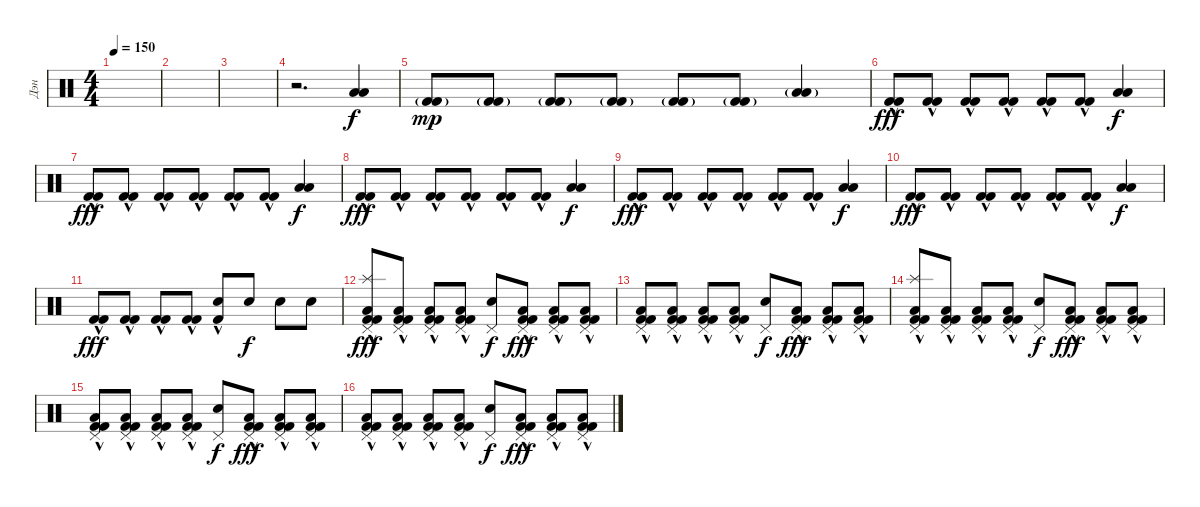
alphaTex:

\track ("Дэн" "Дэн") {instrument percussion}
\staff {score}
\articulation defaults
\ts (4 4)
\tempo 150
\clef neutral
\ks c
|
|
|
r.2{d} ("Low Floor Tom (hit)" "Low Tom (hit)").4{dy f} |
("Kick (hit) 2"{g} "Kick (hit) 2"{g}).8{dy mp} ("Kick (hit) 2"{g} "Kick (hit) 2"{g}).8 ("Kick (hit) 2"{g} "Kick (hit) 2"{g}).8 ("Kick (hit) 2"{g} "Kick (hit) 2"{g}).8 ("Kick (hit) 2"{g} "Kick (hit) 2"{g}).8 ("Kick (hit) 2"{g} "Kick (hit) 2"{g}).8 ("Low Floor Tom (hit)"{g} "Low Tom (hit)"{g}).4 |
("Kick (hit) 2"{hac} "Kick (hit) 2"{hac}).8{dy fff} ("Kick (hit) 2"{hac} "Kick (hit) 2"{hac}).8 ("Kick (hit) 2"{hac} "Kick (hit) 2"{hac}).8 ("Kick (hit) 2"{hac} "Kick (hit) 2"{hac}).8 ("Kick (hit) 2"{hac} "Kick (hit) 2"{hac}).8 ("Kick (hit) 2"{hac} "Kick (hit) 2"{hac}).8 ("Low Floor Tom (hit)" "Low Tom (hit)").4{dy f} |
("Kick (hit) 2"{hac} "Kick (hit) 2"{hac}).8{dy fff} ("Kick (hit) 2"{hac} "Kick (hit) 2"{hac}).8 ("Kick (hit) 2"{hac} "Kick (hit) 2"{hac}).8 ("Kick (hit) 2"{hac} "Kick (hit) 2"{hac}).8 ("Kick (hit) 2"{hac} "Kick (hit) 2"{hac}).8 ("Kick (hit) 2"{hac} "Kick (hit) 2"{hac}).8 ("Low Floor Tom (hit)" "Low Tom (hit)").4{dy f} |
("Kick (hit) 2"{hac} "Kick (hit) 2"{hac}).8{dy fff} ("Kick (hit) 2"{hac} "Kick (hit) 2"{hac}).8 ("Kick (hit) 2"{hac} "Kick (hit) 2"{hac}).8 ("Kick (hit) 2"{hac} "Kick (hit) 2"{hac}).8 ("Kick (hit) 2"{hac} "Kick (hit) 2"{hac}).8 ("Kick (hit) 2"{hac} "Kick (hit) 2"{hac}).8 ("Low Floor Tom (hit)" "Low Tom (hit)").4{dy f} |
("Kick (hit) 2"{hac} "Kick (hit) 2"{hac}).8{dy fff} ("Kick (hit) 2"{hac} "Kick (hit) 2"{hac}).8 ("Kick (hit) 2"{hac} "Kick (hit) 2"{hac}).8 ("Kick (hit) 2"{hac} "Kick (hit) 2"{hac}).8 ("Kick (hit) 2"{hac} "Kick (hit) 2"{hac}).8 ("Kick (hit) 2"{hac} "Kick (hit) 2"{hac}).8 ("Low Floor Tom (hit)" "Low Tom (hit)").4{dy f} |
("Kick (hit) 2"{hac} "Kick (hit) 2"{hac}).8{dy fff} ("Kick (hit) 2"{hac} "Kick (hit) 2"{hac}).8 ("Kick (hit) 2"{hac} "Kick (hit) 2"{hac}).8 ("Kick (hit) 2"{hac} "Kick (hit) 2"{hac}).8 ("Kick (hit) 2"{hac} "Kick (hit) 2"{hac}).8 ("Kick (hit) 2"{hac} "Kick (hit) 2"{hac}).8 ("Low Floor Tom (hit)" "Low Tom (hit)").4{dy f} |
("Kick (hit) 2"{hac} "Kick (hit) 2"{hac}).8{dy fff} ("Kick (hit) 2"{hac} "Kick (hit) 2"{hac}).8 ("Kick (hit) 2"{hac} "Kick (hit) 2"{hac}).8 ("Kick (hit) 2"{hac} "Kick (hit) 2"{hac}).8 ("Electric Snare (hit)"{hac} "Kick (hit) 2"{hac}).8 "Electric Snare (hit)".8{dy f} "Electric Snare (hit)".8 "Electric Snare (hit)".8 |
("Splash (hit)" "Low Floor Tom (hit)" "Kick (hit) 2"{hac} "Kick (hit) 2"{hac} "Pedal Hi-Hat (hit)").8{dy fff} ("Low Floor Tom (hit)" "Kick (hit) 2"{hac} "Kick (hit) 2"{hac} "Pedal Hi-Hat (hit)").8 ("Low Floor Tom (hit)" "Kick (hit) 2"{hac} "Kick (hit) 2"{hac} "Pedal Hi-Hat (hit)").8 ("Low Floor Tom (hit)" "Kick (hit) 2"{hac} "Kick (hit) 2"{hac} "Pedal Hi-Hat (hit)").8 ("Electric Snare (hit)" "Pedal Hi-Hat (hit)").8{dy f} ("Low Floor Tom (hit)" "Kick (hit) 2"{hac} "Kick (hit) 2"{hac} "Pedal Hi-Hat (hit)").8{dy fff} ("Low Floor Tom (hit)" "Kick (hit) 2"{hac} "Kick (hit) 2"{hac} "Pedal Hi-Hat (hit)").8 ("Low Floor Tom (hit)" "Kick (hit) 2"{hac} "Kick (hit) 2"{hac} "Pedal Hi-Hat (hit)").8 |
("Low Floor Tom (hit)" "Kick (hit) 2"{hac} "Kick (hit) 2"{hac} "Pedal Hi-Hat (hit)").8 ("Low Floor Tom (hit)" "Kick (hit) 2"{hac} "Kick (hit) 2"{hac} "Pedal Hi-Hat (hit)").8 ("Low Floor Tom (hit)" "Kick (hit) 2"{hac} "Kick (hit) 2"{hac} "Pedal Hi-Hat (hit)").8 ("Low Floor Tom (hit)" "Kick (hit) 2"{hac} "Kick (hit) 2"{hac} "Pedal Hi-Hat (hit)").8 ("Electric Snare (hit)" "Pedal Hi-Hat (hit)").8{dy f} ("Low Floor Tom (hit)" "Kick (hit) 2"{hac} "Kick (hit) 2"{hac} "Pedal Hi-Hat (hit)").8{dy fff} ("Low Floor Tom (hit)" "Kick (hit) 2"{hac} "Kick (hit) 2"{hac} "Pedal Hi-Hat (hit)").8 ("Low Floor Tom (hit)" "Kick (hit) 2"{hac} "Kick (hit) 2"{hac} "Pedal Hi-Hat (hit)").8 |
("Splash (hit)" "Low Floor Tom (hit)" "Kick (hit) 2"{hac} "Kick (hit) 2"{hac} "Pedal Hi-Hat (hit)").8 ("Low Floor Tom (hit)" "Kick (hit) 2"{hac} "Kick (hit) 2"{hac} "Pedal Hi-Hat (hit)").8 ("Low Floor Tom (hit)" "Kick (hit) 2"{hac} "Kick (hit) 2"{hac} "Pedal Hi-Hat (hit)").8 ("Low Floor Tom (hit)" "Kick (hit) 2"{hac} "Kick (hit) 2"{hac} "Pedal Hi-Hat (hit)").8 ("Electric Snare (hit)" "Pedal Hi-Hat (hit)").8{dy f} ("Low Floor Tom (hit)" "Kick (hit) 2"{hac} "Kick (hit) 2"{hac} "Pedal Hi-Hat (hit)").8{dy fff} ("Low Floor Tom (hit)" "Kick (hit) 2"{hac} "Kick (hit) 2"{hac} "Pedal Hi-Hat (hit)").8 ("Low Floor Tom (hit)" "Kick (hit) 2"{hac} "Kick (hit) 2"{hac} "Pedal Hi-Hat (hit)").8 |
("Low Floor Tom (hit)" "Kick (hit) 2"{hac} "Kick (hit) 2"{hac} "Pedal Hi-Hat (hit)").8 ("Low Floor Tom (hit)" "Kick (hit) 2"{hac} "Kick (hit) 2"{hac} "Pedal Hi-Hat (hit)").8 ("Low Floor Tom (hit)" "Kick (hit) 2"{hac} "Kick (hit) 2"{hac} "Pedal Hi-Hat (hit)").8 ("Low Floor Tom (hit)" "Kick (hit) 2"{hac} "Kick (hit) 2"{hac} "Pedal Hi-Hat (hit)").8 ("Electric Snare (hit)" "Pedal Hi-Hat (hit)").8{dy f} ("Low Floor Tom (hit)" "Kick (hit) 2"{hac} "Kick (hit) 2"{hac} "Pedal Hi-Hat (hit)").8{dy fff} ("Low Floor Tom (hit)" "Kick (hit) 2"{hac} "Kick (hit) 2"{hac} "Pedal Hi-Hat (hit)").8 ("Low Floor Tom (hit)" "Kick (hit) 2"{hac} "Kick (hit) 2"{hac} "Pedal Hi-Hat (hit)").8 |
("Low Floor Tom (hit)" "Kick (hit) 2"{hac} "Kick (hit) 2"{hac} "Pedal Hi-Hat (hit)").8 ("Low Floor Tom (hit)" "Kick (hit) 2"{hac} "Kick (hit) 2"{hac} "Pedal Hi-Hat (hit)").8 ("Low Floor Tom (hit)" "Kick (hit) 2"{hac} "Kick (hit) 2"{hac} "Pedal Hi-Hat (hit)").8 ("Low Floor Tom (hit)" "Kick (hit) 2"{hac} "Kick (hit) 2"{hac} "Pedal Hi-Hat (hit)").8 ("Electric Snare (hit)" "Pedal Hi-Hat (hit)").8{dy f} ("Low Floor Tom (hit)" "Kick (hit) 2"{hac} "Kick (hit) 2"{hac} "Pedal Hi-Hat (hit)").8{dy fff} ("Low Floor Tom (hit)" "Kick (hit) 2"{hac} "Kick (hit) 2"{hac} "Pedal Hi-Hat (hit)").8 ("Low Floor Tom (hit)" "Kick (hit) 2"{hac} "Kick (hit) 2"{hac} "Pedal Hi-Hat (hit)").8
